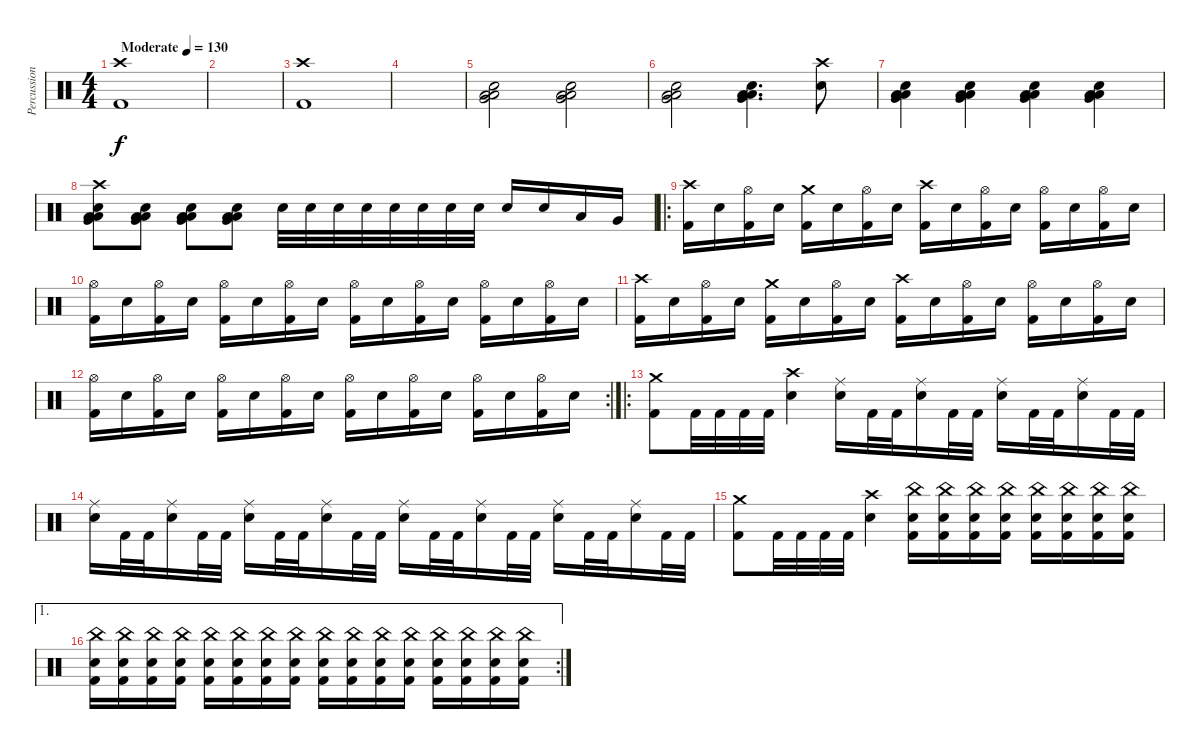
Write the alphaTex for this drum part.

\track ("Percussion" "Percussion") {instrument percussion}
\staff {score}
\articulation defaults
\ts (4 4)
\tempo (130 "Moderate")
\clef neutral
\ks c
("Crash high (hit)" "Kick (hit) 2").1{dy f} |
|
("Crash high (hit)" "Kick (hit) 2").1 |
|
("Low Tom (hit)" "Very Low Tom (hit)" "Low Floor Tom (hit)" "Electric Snare (hit)").2 ("Low Tom (hit)" "Very Low Tom (hit)" "Low Floor Tom (hit)" "Electric Snare (hit)").2 |
("Low Tom (hit)" "Very Low Tom (hit)" "Low Floor Tom (hit)" "Electric Snare (hit)").2 ("Low Tom (hit)" "Very Low Tom (hit)" "Low Floor Tom (hit)" "Electric Snare (hit)").4{d} ("Crash high (hit)" "Electric Snare (hit)").8 |
("Low Tom (hit)" "Very Low Tom (hit)" "Low Floor Tom (hit)" "Electric Snare (hit)").4 ("Low Tom (hit)" "Very Low Tom (hit)" "Low Floor Tom (hit)" "Electric Snare (hit)").4 ("Low Tom (hit)" "Very Low Tom (hit)" "Low Floor Tom (hit)" "Electric Snare (hit)").4 ("Low Tom (hit)" "Very Low Tom (hit)" "Low Floor Tom (hit)" "Electric Snare (hit)").4 |
("Crash high (hit)" "Low Tom (hit)" "Very Low Tom (hit)" "Low Floor Tom (hit)" "Electric Snare (hit)").8 ("Low Tom (hit)" "Very Low Tom (hit)" "Low Floor Tom (hit)" "Electric Snare (hit)").8 ("Low Tom (hit)" "Very Low Tom (hit)" "Low Floor Tom (hit)" "Electric Snare (hit)").8 ("Low Tom (hit)" "Very Low Tom (hit)" "Low Floor Tom (hit)" "Electric Snare (hit)").8 "Electric Snare (hit)".32 "Electric Snare (hit)".32 "Electric Snare (hit)".32 "Electric Snare (hit)".32 "Electric Snare (hit)".32 "Electric Snare (hit)".32 "Electric Snare (hit)".32 "Electric Snare (hit)".32 "Electric Snare (hit)".16 "Electric Snare (hit)".16 "Low Tom (hit)".16 "Very Low Tom (hit)".16 |
\ro
("Crash high (hit)" "Kick (hit) 2").16 "Electric Snare (hit)".16 ("Hi-Hat (open)" "Kick (hit) 2").16 "Electric Snare (hit)".16 ("Crash medium (hit)" "Kick (hit) 2").16 "Electric Snare (hit)".16 ("Hi-Hat (open)" "Kick (hit) 2").16 "Electric Snare (hit)".16 ("Crash high (hit)" "Kick (hit) 2").16 "Electric Snare (hit)".16 ("Hi-Hat (open)" "Kick (hit) 2").16 "Electric Snare (hit)".16 ("Hi-Hat (open)" "Kick (hit) 2").16 "Electric Snare (hit)".16 ("Hi-Hat (open)" "Kick (hit) 2").16 "Electric Snare (hit)".16 |
("Hi-Hat (open)" "Kick (hit) 2").16 "Electric Snare (hit)".16 ("Hi-Hat (open)" "Kick (hit) 2").16 "Electric Snare (hit)".16 ("Hi-Hat (open)" "Kick (hit) 2").16 "Electric Snare (hit)".16 ("Hi-Hat (open)" "Kick (hit) 2").16 "Electric Snare (hit)".16 ("Hi-Hat (open)" "Kick (hit) 2").16 "Electric Snare (hit)".16 ("Hi-Hat (open)" "Kick (hit) 2").16 "Electric Snare (hit)".16 ("Hi-Hat (open)" "Kick (hit) 2").16 "Electric Snare (hit)".16 ("Hi-Hat (open)" "Kick (hit) 2").16 "Electric Snare (hit)".16 |
("Crash high (hit)" "Kick (hit) 2").16 "Electric Snare (hit)".16 ("Hi-Hat (open)" "Kick (hit) 2").16 "Electric Snare (hit)".16 ("Crash medium (hit)" "Kick (hit) 2").16 "Electric Snare (hit)".16 ("Hi-Hat (open)" "Kick (hit) 2").16 "Electric Snare (hit)".16 ("Crash high (hit)" "Kick (hit) 2").16 "Electric Snare (hit)".16 ("Hi-Hat (open)" "Kick (hit) 2").16 "Electric Snare (hit)".16 ("Hi-Hat (open)" "Kick (hit) 2").16 "Electric Snare (hit)".16 ("Hi-Hat (open)" "Kick (hit) 2").16 "Electric Snare (hit)".16 |
\rc 2
("Hi-Hat (open)" "Kick (hit) 2").16 "Electric Snare (hit)".16 ("Hi-Hat (open)" "Kick (hit) 2").16 "Electric Snare (hit)".16 ("Hi-Hat (open)" "Kick (hit) 2").16 "Electric Snare (hit)".16 ("Hi-Hat (open)" "Kick (hit) 2").16 "Electric Snare (hit)".16 ("Hi-Hat (open)" "Kick (hit) 2").16 "Electric Snare (hit)".16 ("Hi-Hat (open)" "Kick (hit) 2").16 "Electric Snare (hit)".16 ("Hi-Hat (open)" "Kick (hit) 2").16 "Electric Snare (hit)".16 ("Hi-Hat (open)" "Kick (hit) 2").16 "Electric Snare (hit)".16 |
\ro
("Crash medium (hit)" "Kick (hit) 2").8 "Kick (hit) 2".32 "Kick (hit) 2".32 "Kick (hit) 2".32 "Kick (hit) 2".32 ("Crash high (hit)" "Electric Snare (hit)").4 ("Ride (middle)" "Electric Snare (hit)").16 "Kick (hit) 2".32 "Kick (hit) 2".32 ("Ride (middle)" "Electric Snare (hit)").16 "Kick (hit) 2".32 "Kick (hit) 2".32 ("Ride (middle)" "Electric Snare (hit)").16 "Kick (hit) 2".32 "Kick (hit) 2".32 ("Ride (middle)" "Electric Snare (hit)").16 "Kick (hit) 2".32 "Kick (hit) 2".32 |
("Ride (middle)" "Electric Snare (hit)").16 "Kick (hit) 2".32 "Kick (hit) 2".32 ("Ride (middle)" "Electric Snare (hit)").16 "Kick (hit) 2".32 "Kick (hit) 2".32 ("Ride (middle)" "Electric Snare (hit)").16 "Kick (hit) 2".32 "Kick (hit) 2".32 ("Ride (middle)" "Electric Snare (hit)").16 "Kick (hit) 2".32 "Kick (hit) 2".32 ("Ride (middle)" "Electric Snare (hit)").16 "Kick (hit) 2".32 "Kick (hit) 2".32 ("Ride (middle)" "Electric Snare (hit)").16 "Kick (hit) 2".32 "Kick (hit) 2".32 ("Ride (middle)" "Electric Snare (hit)").16 "Kick (hit) 2".32 "Kick (hit) 2".32 ("Ride (middle)" "Electric Snare (hit)").16 "Kick (hit) 2".32 "Kick (hit) 2".32 |
("Crash medium (hit)" "Kick (hit) 2").8 "Kick (hit) 2".32 "Kick (hit) 2".32 "Kick (hit) 2".32 "Kick (hit) 2".32 ("Crash high (hit)" "Electric Snare (hit)").4 ("China (hit)" "Electric Snare (hit)" "Kick (hit) 2").16 ("China (hit)" "Electric Snare (hit)" "Kick (hit) 2").16 ("China (hit)" "Electric Snare (hit)" "Kick (hit) 2").16 ("China (hit)" "Electric Snare (hit)" "Kick (hit) 2").16 ("China (hit)" "Electric Snare (hit)" "Kick (hit) 2").16 ("China (hit)" "Electric Snare (hit)" "Kick (hit) 2").16 ("China (hit)" "Electric Snare (hit)" "Kick (hit) 2").16 ("China (hit)" "Electric Snare (hit)" "Kick (hit) 2").16 |
\ae 1
\rc 2
("China (hit)" "Electric Snare (hit)" "Kick (hit) 2").16 ("China (hit)" "Electric Snare (hit)" "Kick (hit) 2").16 ("China (hit)" "Electric Snare (hit)" "Kick (hit) 2").16 ("China (hit)" "Electric Snare (hit)" "Kick (hit) 2").16 ("China (hit)" "Electric Snare (hit)" "Kick (hit) 2").16 ("China (hit)" "Electric Snare (hit)" "Kick (hit) 2").16 ("China (hit)" "Electric Snare (hit)" "Kick (hit) 2").16 ("China (hit)" "Electric Snare (hit)" "Kick (hit) 2").16 ("China (hit)" "Electric Snare (hit)" "Kick (hit) 2").16 ("China (hit)" "Electric Snare (hit)" "Kick (hit) 2").16 ("China (hit)" "Electric Snare (hit)" "Kick (hit) 2").16 ("China (hit)" "Electric Snare (hit)" "Kick (hit) 2").16 ("China (hit)" "Electric Snare (hit)" "Kick (hit) 2").16 ("China (hit)" "Electric Snare (hit)" "Kick (hit) 2").16 ("China (hit)" "Electric Snare (hit)" "Kick (hit) 2").16 ("China (hit)" "Electric Snare (hit)" "Kick (hit) 2").16
